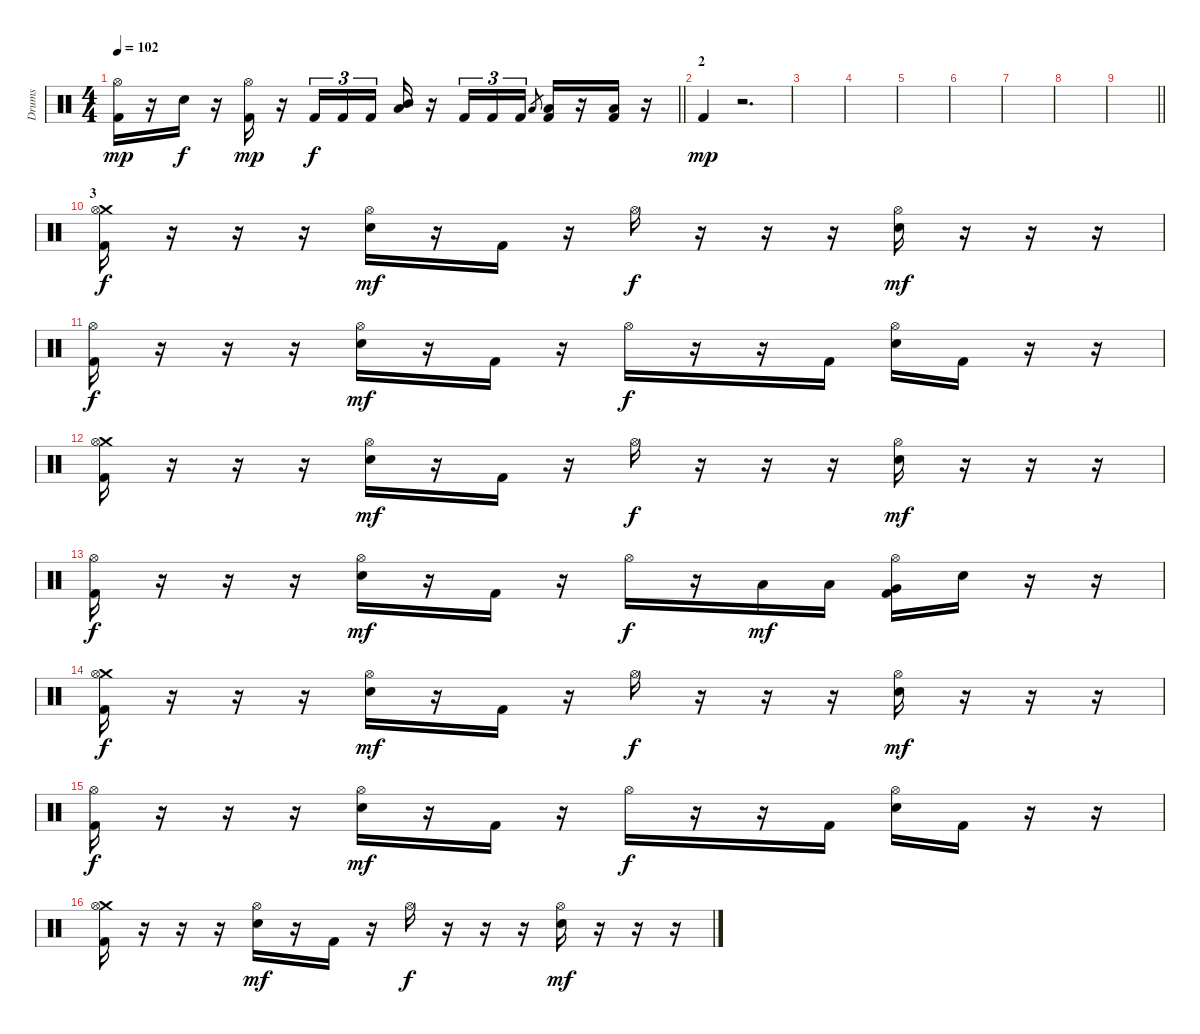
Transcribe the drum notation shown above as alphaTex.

\track ("Drums" "Drums") {instrument percussion}
\staff {score}
\articulation defaults
\ts (4 4)
\tempo 102
\clef neutral
\barLineRight lightlight
\ks c
("Hi-Hat (open)" "Kick (hit) 2").16{dy mp} r.16 "Snare (hit) 2".16{dy f} r.16 ("Hi-Hat (open)" "Kick (hit) 2").16{dy mp} r.16 "Kick (hit) 2".16{tu (3 2) dy f} "Kick (hit) 2".16{tu (3 2)} "Kick (hit) 2".16{tu (3 2)} ("Mid Tom (hit)" "Low Tom (hit)").16 r.16 "Kick (hit) 2".16{tu (3 2)} "Kick (hit) 2".16{tu (3 2)} "Kick (hit) 2".16{tu (3 2)} "Low Tom (hit)".8{gr} ("Low Tom (hit)" "Kick (hit) 2").16 r.16 ("Low Tom (hit)" "Kick (hit) 2").16 r.16 |
\section ("" "2")
"Kick (hit) 2".4{dy mp} r.2{d} |
|
|
|
|
|
|
\barLineRight lightlight
|
\section ("" "3")
("Crash medium (hit)" "Hi-Hat (open)" "Kick (hit) 2").16{dy f} r.16 r.16 r.16 ("Hi-Hat (open)" "Snare (hit) 2").16{dy mf} r.16 "Kick (hit) 2".16 r.16 "Hi-Hat (open)".16{dy f} r.16 r.16 r.16 ("Hi-Hat (open)" "Snare (hit) 2").16{dy mf} r.16 r.16 r.16 |
("Hi-Hat (open)" "Kick (hit) 2").16{dy f} r.16 r.16 r.16 ("Hi-Hat (open)" "Snare (hit) 2").16{dy mf} r.16 "Kick (hit) 2".16 r.16 "Hi-Hat (open)".16{dy f} r.16 r.16 "Kick (hit) 2".16 ("Hi-Hat (open)" "Snare (hit) 2").16 "Kick (hit) 2".16 r.16 r.16 |
("Crash medium (hit)" "Hi-Hat (open)" "Kick (hit) 2").16 r.16 r.16 r.16 ("Hi-Hat (open)" "Snare (hit) 2").16{dy mf} r.16 "Kick (hit) 2".16 r.16 "Hi-Hat (open)".16{dy f} r.16 r.16 r.16 ("Hi-Hat (open)" "Snare (hit) 2").16{dy mf} r.16 r.16 r.16 |
("Hi-Hat (open)" "Kick (hit) 2").16{dy f} r.16 r.16 r.16 ("Hi-Hat (open)" "Snare (hit) 2").16{dy mf} r.16 "Kick (hit) 2".16 r.16 "Hi-Hat (open)".16{dy f} r.16 "Low Tom (hit)".16{dy mf} "Low Tom (hit)".16 ("Hi-Hat (open)" "Very Low Tom (hit)" "Kick (hit) 2").16 "Snare (hit) 2".16 r.16 r.16 |
("Crash medium (hit)" "Hi-Hat (open)" "Kick (hit) 2").16{dy f} r.16 r.16 r.16 ("Hi-Hat (open)" "Snare (hit) 2").16{dy mf} r.16 "Kick (hit) 2".16 r.16 "Hi-Hat (open)".16{dy f} r.16 r.16 r.16 ("Hi-Hat (open)" "Snare (hit) 2").16{dy mf} r.16 r.16 r.16 |
("Hi-Hat (open)" "Kick (hit) 2").16{dy f} r.16 r.16 r.16 ("Hi-Hat (open)" "Snare (hit) 2").16{dy mf} r.16 "Kick (hit) 2".16 r.16 "Hi-Hat (open)".16{dy f} r.16 r.16 "Kick (hit) 2".16 ("Hi-Hat (open)" "Snare (hit) 2").16 "Kick (hit) 2".16 r.16 r.16 |
("Crash medium (hit)" "Hi-Hat (open)" "Kick (hit) 2").16 r.16 r.16 r.16 ("Hi-Hat (open)" "Snare (hit) 2").16{dy mf} r.16 "Kick (hit) 2".16 r.16 "Hi-Hat (open)".16{dy f} r.16 r.16 r.16 ("Hi-Hat (open)" "Snare (hit) 2").16{dy mf} r.16 r.16 r.16
